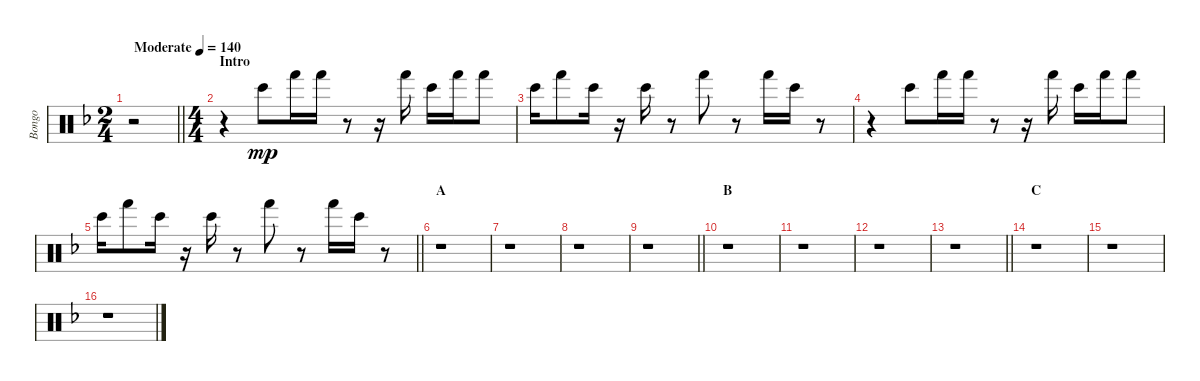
\track ("Bongo" "Bongo") {instrument percussion}
\staff {score}
\articulation defaults
\ts (2 4)
\tempo (140 "Moderate")
\clef neutral
\barLineRight lightlight
\ks f
r.2{dy mp} |
\ts (4 4)
\section ("" "Intro")
r.4 "Bongo High (hit)".8 "Hand (hit)".16 "Hand (hit)".16 r.8 r.16 "Hand (hit)".16 "Bongo High (hit)".16 "Hand (hit)".16 "Hand (hit)".8 |
"Bongo High (hit)".16 "Hand (hit)".8 "Bongo High (hit)".16 r.16 "Bongo High (hit)".16 r.8 "Hand (hit)".8 r.8 "Hand (hit)".16 "Bongo High (hit)".16 r.8 |
r.4 "Bongo High (hit)".8 "Hand (hit)".16 "Hand (hit)".16 r.8 r.16 "Hand (hit)".16 "Bongo High (hit)".16 "Hand (hit)".16 "Hand (hit)".8 |
\barLineRight lightlight "Bongo High (hit)".16 "Hand (hit)".8 "Bongo High (hit)".16
r.16 "Bongo High (hit)".16 r.8 "Hand (hit)".8 r.8 "Hand (hit)".16 "Bongo High (hit)".16 r.8 |
\section ("" "A")
r.1 |
r.1 |
r.1 |
\barLineRight lightlight
r.1 |
\section ("" "B")
r.1 |
r.1 |
r.1 |
\barLineRight lightlight
r.1 |
\section ("" "C")
r.1 |
r.1 |
r.1
